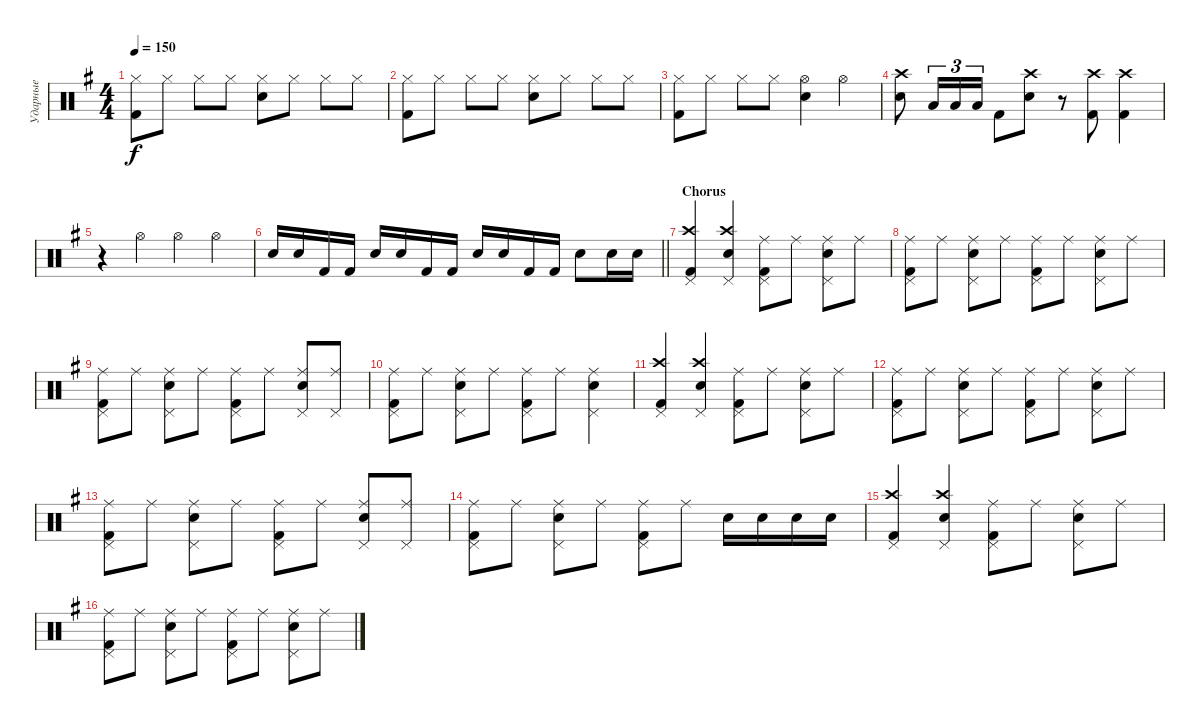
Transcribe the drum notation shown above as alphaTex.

\track ("Ударные" "Ударные") {instrument percussion}
\staff {score}
\articulation defaults
\ts (4 4)
\tempo 150
\clef neutral
\ks eminor
("Kick (hit) 2" "Hi-Hat (closed)").8{dy f} "Hi-Hat (closed)".8 "Hi-Hat (closed)".8 "Hi-Hat (closed)".8 ("Hi-Hat (closed)" "Snare (hit) 2").8 "Hi-Hat (closed)".8 "Hi-Hat (closed)".8 "Hi-Hat (closed)".8 |
("Kick (hit) 2" "Hi-Hat (closed)").8 "Hi-Hat (closed)".8 "Hi-Hat (closed)".8 "Hi-Hat (closed)".8 ("Hi-Hat (closed)" "Snare (hit) 2").8 "Hi-Hat (closed)".8 "Hi-Hat (closed)".8 "Hi-Hat (closed)".8 |
("Kick (hit) 2" "Hi-Hat (closed)").8 "Hi-Hat (closed)".8 "Hi-Hat (closed)".8 "Hi-Hat (closed)".8 ("Hi-Hat (open)" "Snare (hit) 2").4 "Hi-Hat (open)".4 |
("Snare (hit) 2" "Crash high (hit)").8 "Low Tom (hit)".16{tu (3 2)} "Low Tom (hit)".16{tu (3 2)} "Low Tom (hit)".16{tu (3 2)} "Kick (hit) 2".8 ("Snare (hit) 2" "Crash high (hit)").8 r.8 ("Kick (hit) 2" "Crash high (hit)").8 ("Kick (hit) 2" "Crash high (hit)").4 |
r.4 "Hi-Hat (open)".4 "Hi-Hat (open)".4 "Hi-Hat (open)".4 |
\barLineRight lightlight "Snare (hit) 2".16 "Snare (hit) 2".16 "Kick (hit) 2".16 "Kick (hit) 2".16 "Snare (hit) 2".16 "Snare (hit) 2".16 "Kick (hit) 2".16 "Kick (hit) 2".16 "Snare (hit) 2".16 "Snare (hit) 2".16 "Kick (hit) 2".16 "Kick (hit) 2".16 "Snare (hit) 2".8 "Snare (hit) 2".16 "Snare (hit) 2".16
|
\section ("" "Chorus")
("Kick (hit) 2" "Crash high (hit)" "Pedal Hi-Hat (hit)").4 ("Snare (hit) 2" "Crash high (hit)" "Pedal Hi-Hat (hit)").4 ("Kick (hit) 2" "Ride (middle)" "Pedal Hi-Hat (hit)").8 "Ride (middle)".8 ("Snare (hit) 2" "Ride (middle)" "Pedal Hi-Hat (hit)").8 "Ride (middle)".8 |
("Ride (middle)" "Kick (hit) 2" "Pedal Hi-Hat (hit)").8 "Ride (middle)".8 ("Ride (middle)" "Snare (hit) 2" "Pedal Hi-Hat (hit)").8 "Ride (middle)".8 ("Ride (middle)" "Kick (hit) 2" "Pedal Hi-Hat (hit)").8 "Ride (middle)".8 ("Ride (middle)" "Snare (hit) 2" "Pedal Hi-Hat (hit)").8 "Ride (middle)".8 |
("Ride (middle)" "Kick (hit) 2" "Pedal Hi-Hat (hit)").8 "Ride (middle)".8 ("Ride (middle)" "Snare (hit) 2" "Pedal Hi-Hat (hit)").8 "Ride (middle)".8 ("Ride (middle)" "Kick (hit) 2" "Pedal Hi-Hat (hit)").8 "Ride (middle)".8 ("Ride (middle)" "Snare (hit) 2" "Pedal Hi-Hat (hit)").8 ("Ride (middle)" "Pedal Hi-Hat (hit)").8 |
("Ride (middle)" "Kick (hit) 2" "Pedal Hi-Hat (hit)").8 "Ride (middle)".8 ("Ride (middle)" "Snare (hit) 2" "Pedal Hi-Hat (hit)").8 "Ride (middle)".8 ("Ride (middle)" "Kick (hit) 2" "Pedal Hi-Hat (hit)").8 "Ride (middle)".8 ("Ride (middle)" "Snare (hit) 2" "Pedal Hi-Hat (hit)").4 |
("Kick (hit) 2" "Crash high (hit)" "Pedal Hi-Hat (hit)").4 ("Snare (hit) 2" "Crash high (hit)" "Pedal Hi-Hat (hit)").4 ("Kick (hit) 2" "Ride (middle)" "Pedal Hi-Hat (hit)").8 "Ride (middle)".8 ("Snare (hit) 2" "Ride (middle)" "Pedal Hi-Hat (hit)").8 "Ride (middle)".8 |
("Ride (middle)" "Kick (hit) 2" "Pedal Hi-Hat (hit)").8 "Ride (middle)".8 ("Ride (middle)" "Snare (hit) 2" "Pedal Hi-Hat (hit)").8 "Ride (middle)".8 ("Ride (middle)" "Kick (hit) 2" "Pedal Hi-Hat (hit)").8 "Ride (middle)".8 ("Ride (middle)" "Snare (hit) 2" "Pedal Hi-Hat (hit)").8 "Ride (middle)".8 |
("Ride (middle)" "Kick (hit) 2" "Pedal Hi-Hat (hit)").8 "Ride (middle)".8 ("Ride (middle)" "Snare (hit) 2" "Pedal Hi-Hat (hit)").8 "Ride (middle)".8 ("Ride (middle)" "Kick (hit) 2" "Pedal Hi-Hat (hit)").8 "Ride (middle)".8 ("Ride (middle)" "Snare (hit) 2" "Pedal Hi-Hat (hit)").8 ("Ride (middle)" "Pedal Hi-Hat (hit)").8 |
("Ride (middle)" "Kick (hit) 2" "Pedal Hi-Hat (hit)").8 "Ride (middle)".8 ("Ride (middle)" "Snare (hit) 2" "Pedal Hi-Hat (hit)").8 "Ride (middle)".8 ("Ride (middle)" "Kick (hit) 2" "Pedal Hi-Hat (hit)").8 "Ride (middle)".8 "Snare (hit) 2".16 "Snare (hit) 2".16 "Snare (hit) 2".16 "Snare (hit) 2".16 |
("Kick (hit) 2" "Crash high (hit)" "Pedal Hi-Hat (hit)").4 ("Snare (hit) 2" "Crash high (hit)" "Pedal Hi-Hat (hit)").4 ("Kick (hit) 2" "Ride (middle)" "Pedal Hi-Hat (hit)").8 "Ride (middle)".8 ("Snare (hit) 2" "Ride (middle)" "Pedal Hi-Hat (hit)").8 "Ride (middle)".8 |
("Ride (middle)" "Kick (hit) 2" "Pedal Hi-Hat (hit)").8 "Ride (middle)".8 ("Ride (middle)" "Snare (hit) 2" "Pedal Hi-Hat (hit)").8 "Ride (middle)".8 ("Ride (middle)" "Kick (hit) 2" "Pedal Hi-Hat (hit)").8 "Ride (middle)".8 ("Ride (middle)" "Snare (hit) 2" "Pedal Hi-Hat (hit)").8 "Ride (middle)".8
